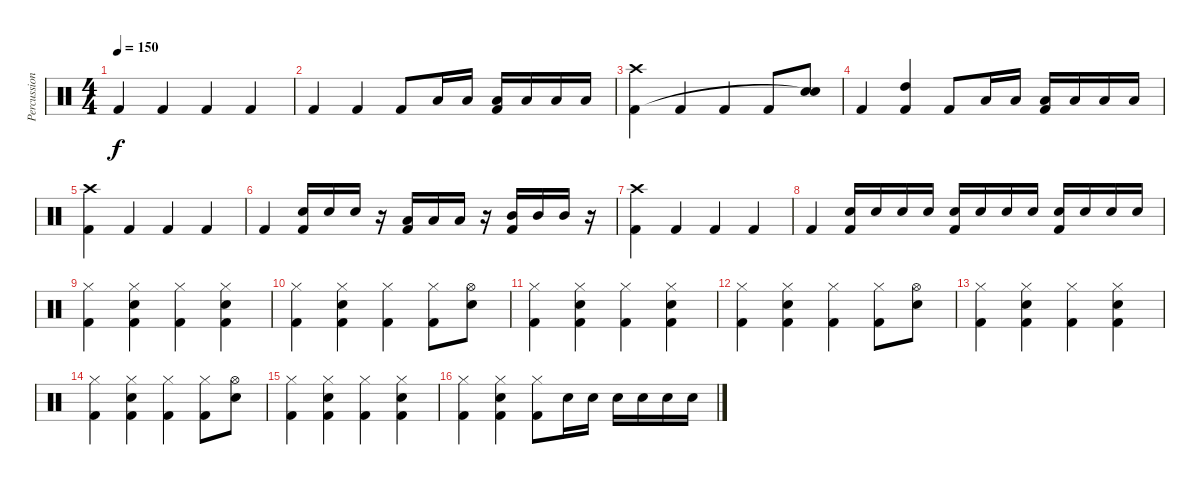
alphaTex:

\track ("Percussion" "Percussion") {instrument percussion}
\staff {score}
\articulation defaults
\ts (4 4)
\tempo 150
\clef neutral
\ks c "Kick (hit) 2".4{dy f} "Kick (hit) 2".4 "Kick (hit) 2".4 "Kick (hit) 2".4
|
"Kick (hit) 2".4 "Kick (hit) 2".4 "Kick (hit) 2".8 "Low Floor Tom (hit)".16 "Low Floor Tom (hit)".16 ("Low Floor Tom (hit)" "Kick (hit) 2").16 "Low Floor Tom (hit)".16 "Low Floor Tom (hit)".16 "Low Floor Tom (hit)".16 |
("Crash high (hit)" "Kick (hit) 2").4 "Kick (hit) 2".4 "Kick (hit) 2".4 "Kick (hit) 2".8 ("Snare (hit) 2" "Snare (hit)"{t}).8 |
"Kick (hit) 2".4 ("High Tom (hit)" "Kick (hit) 2").4 "Kick (hit) 2".8 "Low Floor Tom (hit)".16 "Low Floor Tom (hit)".16 ("Low Floor Tom (hit)" "Kick (hit) 2").16 "Low Floor Tom (hit)".16 "Low Floor Tom (hit)".16 "Low Floor Tom (hit)".16 |
("Crash high (hit)" "Kick (hit) 2").4 "Kick (hit) 2".4 "Kick (hit) 2".4 "Kick (hit) 2".4 |
"Kick (hit) 2".4 ("Snare (hit) 2" "Kick (hit) 2").16 "Snare (hit) 2".16 "Snare (hit) 2".16 r.16 ("Low Floor Tom (hit)" "Kick (hit) 2").16 "Low Floor Tom (hit)".16 "Low Floor Tom (hit)".16 r.16 ("Mid Tom (hit)" "Kick (hit) 2").16 "Mid Tom (hit)".16 "Mid Tom (hit)".16 r.16 |
("Crash high (hit)" "Kick (hit) 2").4 "Kick (hit) 2".4 "Kick (hit) 2".4 "Kick (hit) 2".4 |
"Kick (hit) 2".4 ("Snare (hit) 2" "Kick (hit) 2").16 "Snare (hit) 2".16 "Snare (hit) 2".16 "Snare (hit) 2".16 ("Snare (hit) 2" "Kick (hit) 2").16 "Snare (hit) 2".16 "Snare (hit) 2".16 "Snare (hit) 2".16 ("Snare (hit) 2" "Kick (hit) 2").16 "Snare (hit) 2".16 "Snare (hit) 2".16 "Snare (hit) 2".16 |
("Hi-Hat (closed)" "Kick (hit) 2").4 ("Hi-Hat (closed)" "Kick (hit) 2" "Snare (hit) 2").4 ("Hi-Hat (closed)" "Kick (hit) 2").4 ("Hi-Hat (closed)" "Kick (hit) 2" "Snare (hit) 2").4 |
("Hi-Hat (closed)" "Kick (hit) 2").4 ("Hi-Hat (closed)" "Kick (hit) 2" "Snare (hit) 2").4 ("Hi-Hat (closed)" "Kick (hit) 2").4 ("Hi-Hat (closed)" "Kick (hit) 2").8 ("Hi-Hat (open)" "Snare (hit) 2").8 |
("Hi-Hat (closed)" "Kick (hit) 2").4 ("Hi-Hat (closed)" "Kick (hit) 2" "Snare (hit) 2").4 ("Hi-Hat (closed)" "Kick (hit) 2").4 ("Hi-Hat (closed)" "Kick (hit) 2" "Snare (hit) 2").4 |
("Hi-Hat (closed)" "Kick (hit) 2").4 ("Hi-Hat (closed)" "Kick (hit) 2" "Snare (hit) 2").4 ("Hi-Hat (closed)" "Kick (hit) 2").4 ("Hi-Hat (closed)" "Kick (hit) 2").8 ("Hi-Hat (open)" "Snare (hit) 2").8 |
("Hi-Hat (closed)" "Kick (hit) 2").4 ("Hi-Hat (closed)" "Kick (hit) 2" "Snare (hit) 2").4 ("Hi-Hat (closed)" "Kick (hit) 2").4 ("Hi-Hat (closed)" "Kick (hit) 2" "Snare (hit) 2").4 |
("Hi-Hat (closed)" "Kick (hit) 2").4 ("Hi-Hat (closed)" "Kick (hit) 2" "Snare (hit) 2").4 ("Hi-Hat (closed)" "Kick (hit) 2").4 ("Hi-Hat (closed)" "Kick (hit) 2").8 ("Hi-Hat (open)" "Snare (hit) 2").8 |
("Hi-Hat (closed)" "Kick (hit) 2").4 ("Hi-Hat (closed)" "Kick (hit) 2" "Snare (hit) 2").4 ("Hi-Hat (closed)" "Kick (hit) 2").4 ("Hi-Hat (closed)" "Kick (hit) 2" "Snare (hit) 2").4 |
("Hi-Hat (closed)" "Kick (hit) 2").4 ("Hi-Hat (closed)" "Kick (hit) 2" "Snare (hit) 2").4 ("Hi-Hat (closed)" "Kick (hit) 2").8 "Snare (hit) 2".16 "Snare (hit) 2".16 "Snare (hit) 2".16 "Snare (hit) 2".16 "Snare (hit) 2".16 "Snare (hit) 2".16
